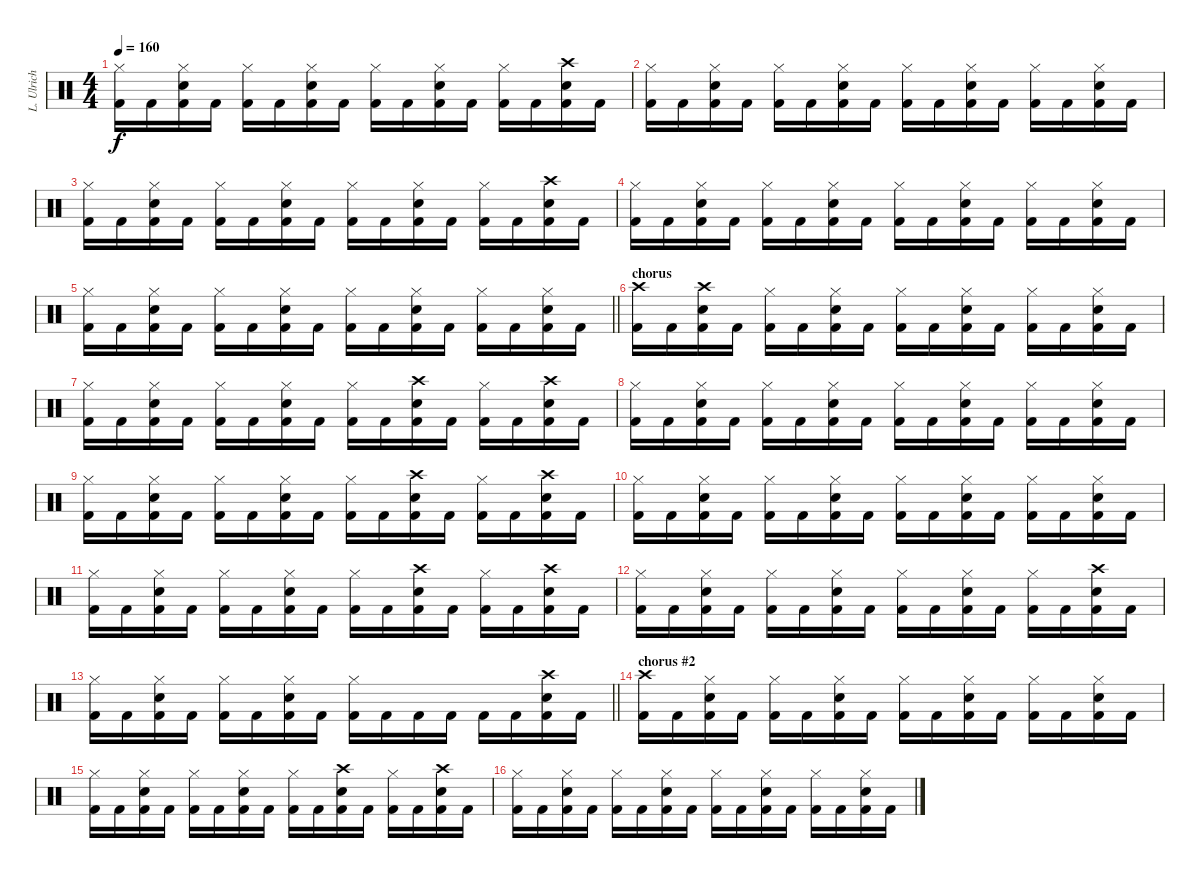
\track ("L. Ulrich - Drums" "L. Ulrich ") {instrument percussion}
\staff {score}
\articulation defaults
\ts (4 4)
\tempo 160
\clef neutral
\ks c
("Hi-Hat (closed)" "Kick (hit) 2").16{dy f} "Kick (hit) 2".16 ("Hi-Hat (closed)" "Snare (hit) 2" "Kick (hit) 2").16 "Kick (hit) 2".16 ("Hi-Hat (closed)" "Kick (hit) 2").16 "Kick (hit) 2".16 ("Hi-Hat (closed)" "Snare (hit) 2" "Kick (hit) 2").16 "Kick (hit) 2".16 ("Hi-Hat (closed)" "Kick (hit) 2").16 "Kick (hit) 2".16 ("Hi-Hat (closed)" "Snare (hit) 2" "Kick (hit) 2").16 "Kick (hit) 2".16 ("Hi-Hat (closed)" "Kick (hit) 2").16 "Kick (hit) 2".16 ("Crash high (hit)" "Snare (hit) 2" "Kick (hit) 2").16 "Kick (hit) 2".16 |
("Hi-Hat (closed)" "Kick (hit) 2").16 "Kick (hit) 2".16 ("Hi-Hat (closed)" "Snare (hit) 2" "Kick (hit) 2").16 "Kick (hit) 2".16 ("Hi-Hat (closed)" "Kick (hit) 2").16 "Kick (hit) 2".16 ("Hi-Hat (closed)" "Snare (hit) 2" "Kick (hit) 2").16 "Kick (hit) 2".16 ("Hi-Hat (closed)" "Kick (hit) 2").16 "Kick (hit) 2".16 ("Hi-Hat (closed)" "Snare (hit) 2" "Kick (hit) 2").16 "Kick (hit) 2".16 ("Hi-Hat (closed)" "Kick (hit) 2").16 "Kick (hit) 2".16 ("Hi-Hat (closed)" "Snare (hit) 2" "Kick (hit) 2").16 "Kick (hit) 2".16 |
("Hi-Hat (closed)" "Kick (hit) 2").16 "Kick (hit) 2".16 ("Hi-Hat (closed)" "Snare (hit) 2" "Kick (hit) 2").16 "Kick (hit) 2".16 ("Hi-Hat (closed)" "Kick (hit) 2").16 "Kick (hit) 2".16 ("Hi-Hat (closed)" "Snare (hit) 2" "Kick (hit) 2").16 "Kick (hit) 2".16 ("Hi-Hat (closed)" "Kick (hit) 2").16 "Kick (hit) 2".16 ("Hi-Hat (closed)" "Snare (hit) 2" "Kick (hit) 2").16 "Kick (hit) 2".16 ("Hi-Hat (closed)" "Kick (hit) 2").16 "Kick (hit) 2".16 ("Crash high (hit)" "Snare (hit) 2" "Kick (hit) 2").16 "Kick (hit) 2".16 |
("Hi-Hat (closed)" "Kick (hit) 2").16 "Kick (hit) 2".16 ("Hi-Hat (closed)" "Snare (hit) 2" "Kick (hit) 2").16 "Kick (hit) 2".16 ("Hi-Hat (closed)" "Kick (hit) 2").16 "Kick (hit) 2".16 ("Hi-Hat (closed)" "Snare (hit) 2" "Kick (hit) 2").16 "Kick (hit) 2".16 ("Hi-Hat (closed)" "Kick (hit) 2").16 "Kick (hit) 2".16 ("Hi-Hat (closed)" "Snare (hit) 2" "Kick (hit) 2").16 "Kick (hit) 2".16 ("Hi-Hat (closed)" "Kick (hit) 2").16 "Kick (hit) 2".16 ("Hi-Hat (closed)" "Snare (hit) 2" "Kick (hit) 2").16 "Kick (hit) 2".16 |
\barLineRight lightlight
("Hi-Hat (closed)" "Kick (hit) 2").16 "Kick (hit) 2".16 ("Hi-Hat (closed)" "Snare (hit) 2" "Kick (hit) 2").16 "Kick (hit) 2".16 ("Hi-Hat (closed)" "Kick (hit) 2").16 "Kick (hit) 2".16 ("Hi-Hat (closed)" "Snare (hit) 2" "Kick (hit) 2").16 "Kick (hit) 2".16 ("Hi-Hat (closed)" "Kick (hit) 2").16 "Kick (hit) 2".16 ("Hi-Hat (closed)" "Snare (hit) 2" "Kick (hit) 2").16 "Kick (hit) 2".16 ("Hi-Hat (closed)" "Kick (hit) 2").16 "Kick (hit) 2".16 ("Hi-Hat (closed)" "Snare (hit) 2" "Kick (hit) 2").16 "Kick (hit) 2".16 |
\section ("" "chorus")
("Crash high (hit)" "Kick (hit) 2").16 "Kick (hit) 2".16 ("Crash high (hit)" "Snare (hit) 2" "Kick (hit) 2").16 "Kick (hit) 2".16 ("Hi-Hat (closed)" "Kick (hit) 2").16 "Kick (hit) 2".16 ("Hi-Hat (closed)" "Snare (hit) 2" "Kick (hit) 2").16 "Kick (hit) 2".16 ("Hi-Hat (closed)" "Kick (hit) 2").16 "Kick (hit) 2".16 ("Hi-Hat (closed)" "Snare (hit) 2" "Kick (hit) 2").16 "Kick (hit) 2".16 ("Hi-Hat (closed)" "Kick (hit) 2").16 "Kick (hit) 2".16 ("Hi-Hat (closed)" "Snare (hit) 2" "Kick (hit) 2").16 "Kick (hit) 2".16 |
("Hi-Hat (closed)" "Kick (hit) 2").16 "Kick (hit) 2".16 ("Hi-Hat (closed)" "Snare (hit) 2" "Kick (hit) 2").16 "Kick (hit) 2".16 ("Hi-Hat (closed)" "Kick (hit) 2").16 "Kick (hit) 2".16 ("Hi-Hat (closed)" "Snare (hit) 2" "Kick (hit) 2").16 "Kick (hit) 2".16 ("Hi-Hat (closed)" "Kick (hit) 2").16 "Kick (hit) 2".16 ("Crash high (hit)" "Snare (hit) 2" "Kick (hit) 2").16 "Kick (hit) 2".16 ("Hi-Hat (closed)" "Kick (hit) 2").16 "Kick (hit) 2".16 ("Crash high (hit)" "Snare (hit) 2" "Kick (hit) 2").16 "Kick (hit) 2".16 |
("Hi-Hat (closed)" "Kick (hit) 2").16 "Kick (hit) 2".16 ("Hi-Hat (closed)" "Snare (hit) 2" "Kick (hit) 2").16 "Kick (hit) 2".16 ("Hi-Hat (closed)" "Kick (hit) 2").16 "Kick (hit) 2".16 ("Hi-Hat (closed)" "Snare (hit) 2" "Kick (hit) 2").16 "Kick (hit) 2".16 ("Hi-Hat (closed)" "Kick (hit) 2").16 "Kick (hit) 2".16 ("Hi-Hat (closed)" "Snare (hit) 2" "Kick (hit) 2").16 "Kick (hit) 2".16 ("Hi-Hat (closed)" "Kick (hit) 2").16 "Kick (hit) 2".16 ("Hi-Hat (closed)" "Snare (hit) 2" "Kick (hit) 2").16 "Kick (hit) 2".16 |
("Hi-Hat (closed)" "Kick (hit) 2").16 "Kick (hit) 2".16 ("Hi-Hat (closed)" "Snare (hit) 2" "Kick (hit) 2").16 "Kick (hit) 2".16 ("Hi-Hat (closed)" "Kick (hit) 2").16 "Kick (hit) 2".16 ("Hi-Hat (closed)" "Snare (hit) 2" "Kick (hit) 2").16 "Kick (hit) 2".16 ("Hi-Hat (closed)" "Kick (hit) 2").16 "Kick (hit) 2".16 ("Crash high (hit)" "Snare (hit) 2" "Kick (hit) 2").16 "Kick (hit) 2".16 ("Hi-Hat (closed)" "Kick (hit) 2").16 "Kick (hit) 2".16 ("Crash high (hit)" "Snare (hit) 2" "Kick (hit) 2").16 "Kick (hit) 2".16 |
("Hi-Hat (closed)" "Kick (hit) 2").16 "Kick (hit) 2".16 ("Hi-Hat (closed)" "Snare (hit) 2" "Kick (hit) 2").16 "Kick (hit) 2".16 ("Hi-Hat (closed)" "Kick (hit) 2").16 "Kick (hit) 2".16 ("Hi-Hat (closed)" "Snare (hit) 2" "Kick (hit) 2").16 "Kick (hit) 2".16 ("Hi-Hat (closed)" "Kick (hit) 2").16 "Kick (hit) 2".16 ("Hi-Hat (closed)" "Snare (hit) 2" "Kick (hit) 2").16 "Kick (hit) 2".16 ("Hi-Hat (closed)" "Kick (hit) 2").16 "Kick (hit) 2".16 ("Hi-Hat (closed)" "Snare (hit) 2" "Kick (hit) 2").16 "Kick (hit) 2".16 |
("Hi-Hat (closed)" "Kick (hit) 2").16 "Kick (hit) 2".16 ("Hi-Hat (closed)" "Snare (hit) 2" "Kick (hit) 2").16 "Kick (hit) 2".16 ("Hi-Hat (closed)" "Kick (hit) 2").16 "Kick (hit) 2".16 ("Hi-Hat (closed)" "Snare (hit) 2" "Kick (hit) 2").16 "Kick (hit) 2".16 ("Hi-Hat (closed)" "Kick (hit) 2").16 "Kick (hit) 2".16 ("Crash high (hit)" "Snare (hit) 2" "Kick (hit) 2").16 "Kick (hit) 2".16 ("Hi-Hat (closed)" "Kick (hit) 2").16 "Kick (hit) 2".16 ("Crash high (hit)" "Snare (hit) 2" "Kick (hit) 2").16 "Kick (hit) 2".16 |
("Hi-Hat (closed)" "Kick (hit) 2").16 "Kick (hit) 2".16 ("Hi-Hat (closed)" "Snare (hit) 2" "Kick (hit) 2").16 "Kick (hit) 2".16 ("Hi-Hat (closed)" "Kick (hit) 2").16 "Kick (hit) 2".16 ("Hi-Hat (closed)" "Snare (hit) 2" "Kick (hit) 2").16 "Kick (hit) 2".16 ("Hi-Hat (closed)" "Kick (hit) 2").16 "Kick (hit) 2".16 ("Hi-Hat (closed)" "Snare (hit) 2" "Kick (hit) 2").16 "Kick (hit) 2".16 ("Hi-Hat (closed)" "Kick (hit) 2").16 "Kick (hit) 2".16 ("Crash high (hit)" "Snare (hit) 2" "Kick (hit) 2").16 "Kick (hit) 2".16 |
\barLineRight lightlight
("Hi-Hat (closed)" "Kick (hit) 2").16 "Kick (hit) 2".16 ("Hi-Hat (closed)" "Snare (hit) 2" "Kick (hit) 2").16 "Kick (hit) 2".16 ("Hi-Hat (closed)" "Kick (hit) 2").16 "Kick (hit) 2".16 ("Hi-Hat (closed)" "Snare (hit) 2" "Kick (hit) 2").16 "Kick (hit) 2".16 ("Hi-Hat (closed)" "Kick (hit) 2").16 "Kick (hit) 2".16 "Kick (hit) 2".16 "Kick (hit) 2".16 "Kick (hit) 2".16 "Kick (hit) 2".16 ("Crash high (hit)" "Snare (hit) 2" "Kick (hit) 2").16 "Kick (hit) 2".16 |
\section ("" "chorus #2")
("Crash high (hit)" "Kick (hit) 2").16 "Kick (hit) 2".16 ("Hi-Hat (closed)" "Snare (hit) 2" "Kick (hit) 2").16 "Kick (hit) 2".16 ("Hi-Hat (closed)" "Kick (hit) 2").16 "Kick (hit) 2".16 ("Hi-Hat (closed)" "Snare (hit) 2" "Kick (hit) 2").16 "Kick (hit) 2".16 ("Hi-Hat (closed)" "Kick (hit) 2").16 "Kick (hit) 2".16 ("Hi-Hat (closed)" "Snare (hit) 2" "Kick (hit) 2").16 "Kick (hit) 2".16 ("Hi-Hat (closed)" "Kick (hit) 2").16 "Kick (hit) 2".16 ("Hi-Hat (closed)" "Snare (hit) 2" "Kick (hit) 2").16 "Kick (hit) 2".16 |
("Hi-Hat (closed)" "Kick (hit) 2").16 "Kick (hit) 2".16 ("Hi-Hat (closed)" "Snare (hit) 2" "Kick (hit) 2").16 "Kick (hit) 2".16 ("Hi-Hat (closed)" "Kick (hit) 2").16 "Kick (hit) 2".16 ("Hi-Hat (closed)" "Snare (hit) 2" "Kick (hit) 2").16 "Kick (hit) 2".16 ("Hi-Hat (closed)" "Kick (hit) 2").16 "Kick (hit) 2".16 ("Crash high (hit)" "Snare (hit) 2" "Kick (hit) 2").16 "Kick (hit) 2".16 ("Hi-Hat (closed)" "Kick (hit) 2").16 "Kick (hit) 2".16 ("Crash high (hit)" "Snare (hit) 2" "Kick (hit) 2").16 "Kick (hit) 2".16 |
("Hi-Hat (closed)" "Kick (hit) 2").16 "Kick (hit) 2".16 ("Hi-Hat (closed)" "Snare (hit) 2" "Kick (hit) 2").16 "Kick (hit) 2".16 ("Hi-Hat (closed)" "Kick (hit) 2").16 "Kick (hit) 2".16 ("Hi-Hat (closed)" "Snare (hit) 2" "Kick (hit) 2").16 "Kick (hit) 2".16 ("Hi-Hat (closed)" "Kick (hit) 2").16 "Kick (hit) 2".16 ("Hi-Hat (closed)" "Snare (hit) 2" "Kick (hit) 2").16 "Kick (hit) 2".16 ("Hi-Hat (closed)" "Kick (hit) 2").16 "Kick (hit) 2".16 ("Hi-Hat (closed)" "Snare (hit) 2" "Kick (hit) 2").16 "Kick (hit) 2".16
